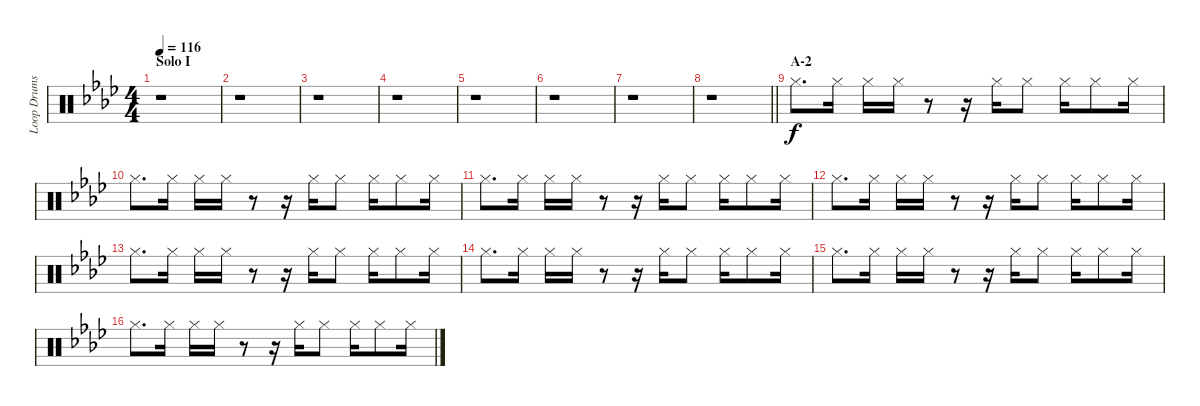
\track ("Loop Drums II" "Loop Drums") {instrument percussion}
\staff {score}
\articulation defaults
\ts (4 4)
\section ("" "Solo I")
\tempo 116
\clef neutral
\ks ab
r.1{dy f} |
r.1 |
r.1 |
r.1 |
r.1 |
r.1 |
r.1 |
\barLineRight lightlight
r.1 |
\section ("" "A-2")
"Hi-Hat (closed)".8{d} "Hi-Hat (closed)".16 "Hi-Hat (closed)".16 "Hi-Hat (closed)".16 r.8 r.16 "Hi-Hat (closed)".16 "Hi-Hat (closed)".8 "Hi-Hat (closed)".16 "Hi-Hat (closed)".8 "Hi-Hat (closed)".16 |
"Hi-Hat (closed)".8{d} "Hi-Hat (closed)".16 "Hi-Hat (closed)".16 "Hi-Hat (closed)".16 r.8 r.16 "Hi-Hat (closed)".16 "Hi-Hat (closed)".8 "Hi-Hat (closed)".16 "Hi-Hat (closed)".8 "Hi-Hat (closed)".16 |
"Hi-Hat (closed)".8{d} "Hi-Hat (closed)".16 "Hi-Hat (closed)".16 "Hi-Hat (closed)".16 r.8 r.16 "Hi-Hat (closed)".16 "Hi-Hat (closed)".8 "Hi-Hat (closed)".16 "Hi-Hat (closed)".8 "Hi-Hat (closed)".16 |
"Hi-Hat (closed)".8{d} "Hi-Hat (closed)".16 "Hi-Hat (closed)".16 "Hi-Hat (closed)".16 r.8 r.16 "Hi-Hat (closed)".16 "Hi-Hat (closed)".8 "Hi-Hat (closed)".16 "Hi-Hat (closed)".8 "Hi-Hat (closed)".16 |
"Hi-Hat (closed)".8{d} "Hi-Hat (closed)".16 "Hi-Hat (closed)".16 "Hi-Hat (closed)".16 r.8 r.16 "Hi-Hat (closed)".16 "Hi-Hat (closed)".8 "Hi-Hat (closed)".16 "Hi-Hat (closed)".8 "Hi-Hat (closed)".16 |
"Hi-Hat (closed)".8{d} "Hi-Hat (closed)".16 "Hi-Hat (closed)".16 "Hi-Hat (closed)".16 r.8 r.16 "Hi-Hat (closed)".16 "Hi-Hat (closed)".8 "Hi-Hat (closed)".16 "Hi-Hat (closed)".8 "Hi-Hat (closed)".16 |
"Hi-Hat (closed)".8{d} "Hi-Hat (closed)".16 "Hi-Hat (closed)".16 "Hi-Hat (closed)".16 r.8 r.16 "Hi-Hat (closed)".16 "Hi-Hat (closed)".8 "Hi-Hat (closed)".16 "Hi-Hat (closed)".8 "Hi-Hat (closed)".16 |
"Hi-Hat (closed)".8{d} "Hi-Hat (closed)".16 "Hi-Hat (closed)".16 "Hi-Hat (closed)".16 r.8 r.16 "Hi-Hat (closed)".16 "Hi-Hat (closed)".8 "Hi-Hat (closed)".16 "Hi-Hat (closed)".8 "Hi-Hat (closed)".16
